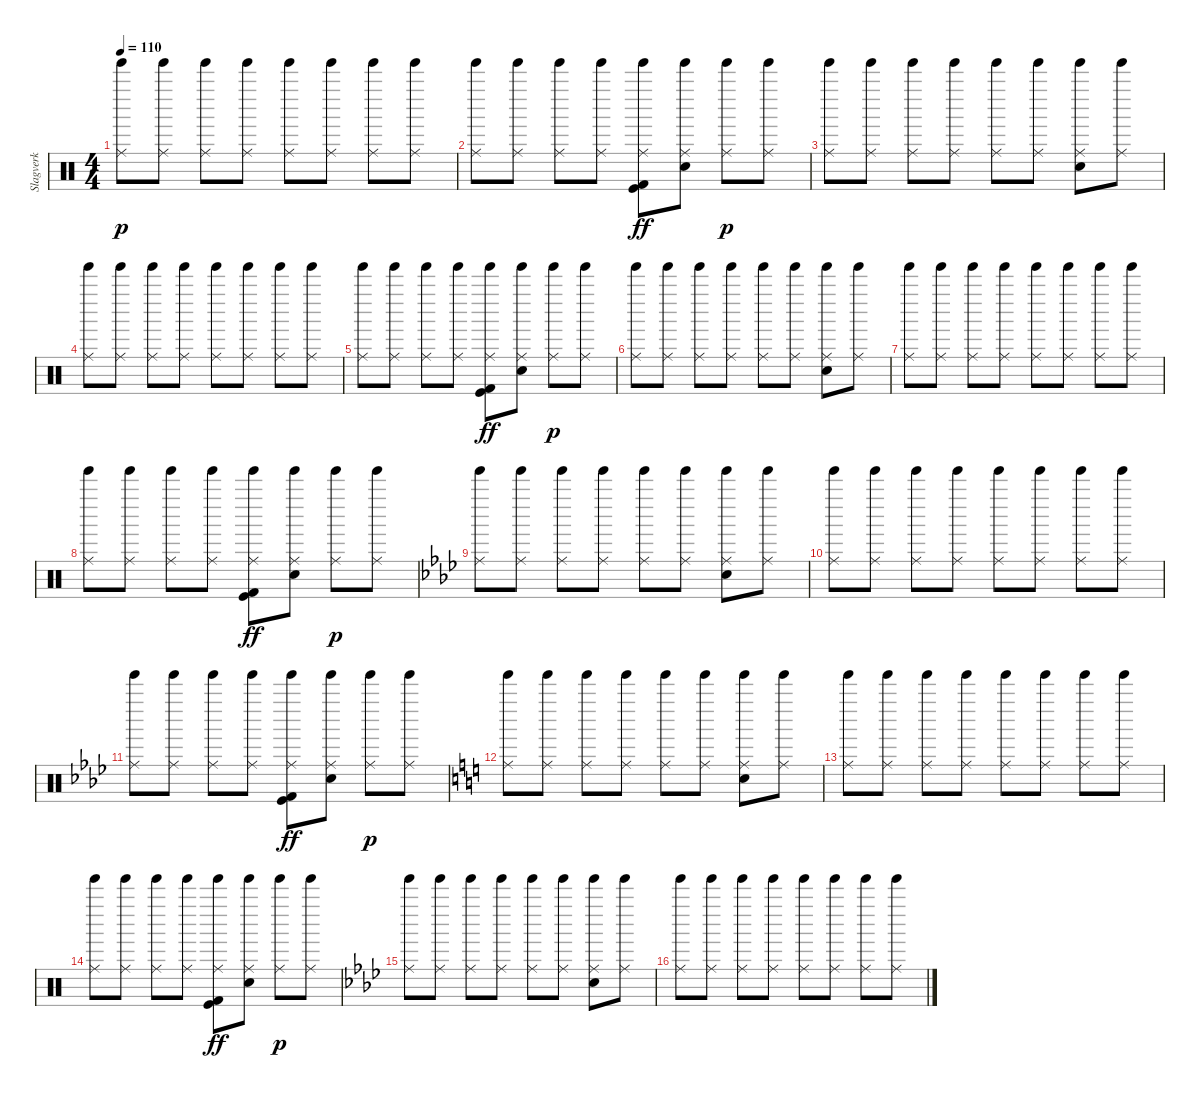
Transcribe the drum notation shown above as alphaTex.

\track ("Slagverk" "Slagverk") {instrument percussion}
\staff {score}
\articulation defaults
\ts (4 4)
\tempo 110
\clef neutral
\ks c
("Tinkle Bell (hit)" "Ride (middle)").8{dy p} ("Tinkle Bell (hit)" "Ride (middle)").8 ("Tinkle Bell (hit)" "Ride (middle)").8 ("Tinkle Bell (hit)" "Ride (middle)").8 ("Tinkle Bell (hit)" "Ride (middle)").8 ("Tinkle Bell (hit)" "Ride (middle)").8 ("Tinkle Bell (hit)" "Ride (middle)").8 ("Tinkle Bell (hit)" "Ride (middle)").8 |
("Tinkle Bell (hit)" "Ride (middle)").8 ("Tinkle Bell (hit)" "Ride (middle)").8 ("Tinkle Bell (hit)" "Ride (middle)").8 ("Tinkle Bell (hit)" "Ride (middle)").8 ("Tinkle Bell (hit)" "Ride (middle)" "Kick (hit) 2" "Kick (hit)").8{dy ff} ("Tinkle Bell (hit)" "Ride (middle)" "Electric Snare (hit)").8 ("Tinkle Bell (hit)" "Ride (middle)").8{dy p} ("Tinkle Bell (hit)" "Ride (middle)").8 |
("Tinkle Bell (hit)" "Ride (middle)").8 ("Tinkle Bell (hit)" "Ride (middle)").8 ("Tinkle Bell (hit)" "Ride (middle)").8 ("Tinkle Bell (hit)" "Ride (middle)").8 ("Tinkle Bell (hit)" "Ride (middle)").8 ("Tinkle Bell (hit)" "Ride (middle)").8 ("Tinkle Bell (hit)" "Ride (middle)" "Electric Snare (hit)").8 ("Tinkle Bell (hit)" "Ride (middle)").8 |
("Tinkle Bell (hit)" "Ride (middle)").8 ("Tinkle Bell (hit)" "Ride (middle)").8 ("Tinkle Bell (hit)" "Ride (middle)").8 ("Tinkle Bell (hit)" "Ride (middle)").8 ("Tinkle Bell (hit)" "Ride (middle)").8 ("Tinkle Bell (hit)" "Ride (middle)").8 ("Tinkle Bell (hit)" "Ride (middle)").8 ("Tinkle Bell (hit)" "Ride (middle)").8 |
("Tinkle Bell (hit)" "Ride (middle)").8 ("Tinkle Bell (hit)" "Ride (middle)").8 ("Tinkle Bell (hit)" "Ride (middle)").8 ("Tinkle Bell (hit)" "Ride (middle)").8 ("Tinkle Bell (hit)" "Ride (middle)" "Kick (hit) 2" "Kick (hit)").8{dy ff} ("Tinkle Bell (hit)" "Ride (middle)" "Electric Snare (hit)").8 ("Tinkle Bell (hit)" "Ride (middle)").8{dy p} ("Tinkle Bell (hit)" "Ride (middle)").8 |
("Tinkle Bell (hit)" "Ride (middle)").8 ("Tinkle Bell (hit)" "Ride (middle)").8 ("Tinkle Bell (hit)" "Ride (middle)").8 ("Tinkle Bell (hit)" "Ride (middle)").8 ("Tinkle Bell (hit)" "Ride (middle)").8 ("Tinkle Bell (hit)" "Ride (middle)").8 ("Tinkle Bell (hit)" "Ride (middle)" "Electric Snare (hit)").8 ("Tinkle Bell (hit)" "Ride (middle)").8 |
("Tinkle Bell (hit)" "Ride (middle)").8 ("Tinkle Bell (hit)" "Ride (middle)").8 ("Tinkle Bell (hit)" "Ride (middle)").8 ("Tinkle Bell (hit)" "Ride (middle)").8 ("Tinkle Bell (hit)" "Ride (middle)").8 ("Tinkle Bell (hit)" "Ride (middle)").8 ("Tinkle Bell (hit)" "Ride (middle)").8 ("Tinkle Bell (hit)" "Ride (middle)").8 |
("Tinkle Bell (hit)" "Ride (middle)").8 ("Tinkle Bell (hit)" "Ride (middle)").8 ("Tinkle Bell (hit)" "Ride (middle)").8 ("Tinkle Bell (hit)" "Ride (middle)").8 ("Tinkle Bell (hit)" "Ride (middle)" "Kick (hit) 2" "Kick (hit)").8{dy ff} ("Tinkle Bell (hit)" "Ride (middle)" "Electric Snare (hit)").8 ("Tinkle Bell (hit)" "Ride (middle)").8{dy p} ("Tinkle Bell (hit)" "Ride (middle)").8 |
\ks ab
("Tinkle Bell (hit)" "Ride (middle)").8 ("Tinkle Bell (hit)" "Ride (middle)").8 ("Tinkle Bell (hit)" "Ride (middle)").8 ("Tinkle Bell (hit)" "Ride (middle)").8 ("Tinkle Bell (hit)" "Ride (middle)").8 ("Tinkle Bell (hit)" "Ride (middle)").8 ("Tinkle Bell (hit)" "Ride (middle)" "Electric Snare (hit)").8 ("Tinkle Bell (hit)" "Ride (middle)").8 |
("Tinkle Bell (hit)" "Ride (middle)").8 ("Tinkle Bell (hit)" "Ride (middle)").8 ("Tinkle Bell (hit)" "Ride (middle)").8 ("Tinkle Bell (hit)" "Ride (middle)").8 ("Tinkle Bell (hit)" "Ride (middle)").8 ("Tinkle Bell (hit)" "Ride (middle)").8 ("Tinkle Bell (hit)" "Ride (middle)").8 ("Tinkle Bell (hit)" "Ride (middle)").8 |
("Tinkle Bell (hit)" "Ride (middle)").8 ("Tinkle Bell (hit)" "Ride (middle)").8 ("Tinkle Bell (hit)" "Ride (middle)").8 ("Tinkle Bell (hit)" "Ride (middle)").8 ("Tinkle Bell (hit)" "Ride (middle)" "Kick (hit) 2" "Kick (hit)").8{dy ff} ("Tinkle Bell (hit)" "Ride (middle)" "Electric Snare (hit)").8 ("Tinkle Bell (hit)" "Ride (middle)").8{dy p} ("Tinkle Bell (hit)" "Ride (middle)").8 |
\ks c
("Tinkle Bell (hit)" "Ride (middle)").8 ("Tinkle Bell (hit)" "Ride (middle)").8 ("Tinkle Bell (hit)" "Ride (middle)").8 ("Tinkle Bell (hit)" "Ride (middle)").8 ("Tinkle Bell (hit)" "Ride (middle)").8 ("Tinkle Bell (hit)" "Ride (middle)").8 ("Tinkle Bell (hit)" "Ride (middle)" "Electric Snare (hit)").8 ("Tinkle Bell (hit)" "Ride (middle)").8 |
("Tinkle Bell (hit)" "Ride (middle)").8 ("Tinkle Bell (hit)" "Ride (middle)").8 ("Tinkle Bell (hit)" "Ride (middle)").8 ("Tinkle Bell (hit)" "Ride (middle)").8 ("Tinkle Bell (hit)" "Ride (middle)").8 ("Tinkle Bell (hit)" "Ride (middle)").8 ("Tinkle Bell (hit)" "Ride (middle)").8 ("Tinkle Bell (hit)" "Ride (middle)").8 |
("Tinkle Bell (hit)" "Ride (middle)").8 ("Tinkle Bell (hit)" "Ride (middle)").8 ("Tinkle Bell (hit)" "Ride (middle)").8 ("Tinkle Bell (hit)" "Ride (middle)").8 ("Tinkle Bell (hit)" "Ride (middle)" "Kick (hit) 2" "Kick (hit)").8{dy ff} ("Tinkle Bell (hit)" "Ride (middle)" "Electric Snare (hit)").8 ("Tinkle Bell (hit)" "Ride (middle)").8{dy p} ("Tinkle Bell (hit)" "Ride (middle)").8 |
\ks ab
("Tinkle Bell (hit)" "Ride (middle)").8 ("Tinkle Bell (hit)" "Ride (middle)").8 ("Tinkle Bell (hit)" "Ride (middle)").8 ("Tinkle Bell (hit)" "Ride (middle)").8 ("Tinkle Bell (hit)" "Ride (middle)").8 ("Tinkle Bell (hit)" "Ride (middle)").8 ("Tinkle Bell (hit)" "Ride (middle)" "Electric Snare (hit)").8 ("Tinkle Bell (hit)" "Ride (middle)").8 |
("Tinkle Bell (hit)" "Ride (middle)").8 ("Tinkle Bell (hit)" "Ride (middle)").8 ("Tinkle Bell (hit)" "Ride (middle)").8 ("Tinkle Bell (hit)" "Ride (middle)").8 ("Tinkle Bell (hit)" "Ride (middle)").8 ("Tinkle Bell (hit)" "Ride (middle)").8 ("Tinkle Bell (hit)" "Ride (middle)").8 ("Tinkle Bell (hit)" "Ride (middle)").8
